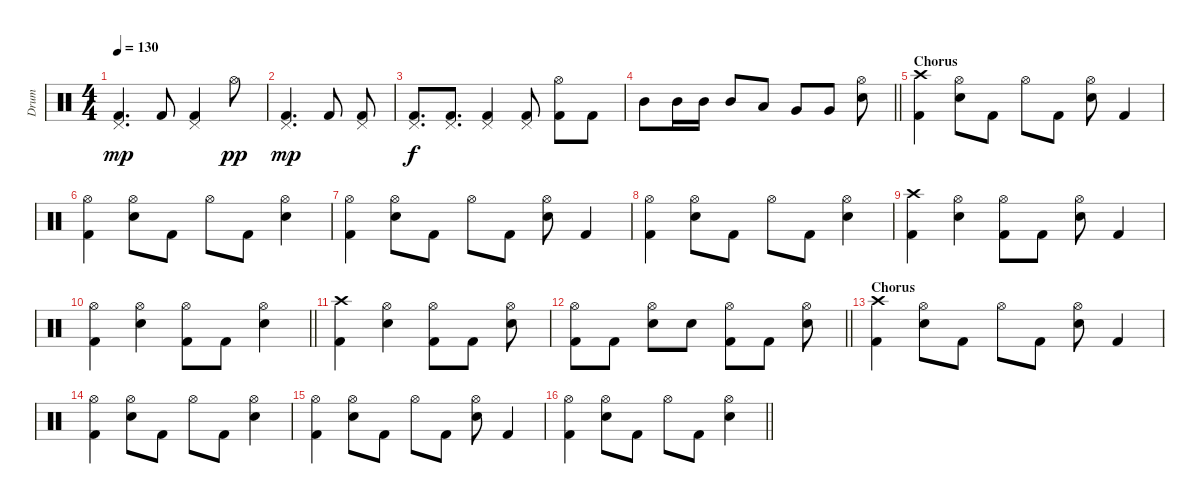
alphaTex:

\track ("Drum" "Drum") {instrument percussion}
\staff {score}
\articulation defaults
\ts (4 4)
\tempo 130
\clef neutral
\ks c
("Pedal Hi-Hat (hit)" "Kick (hit) 2").4{d dy mp} "Kick (hit) 2".8 ("Pedal Hi-Hat (hit)" "Kick (hit) 2").4 "Hi-Hat (open)".8{dy pp} |
("Pedal Hi-Hat (hit)" "Kick (hit) 2").4{d dy mp} "Kick (hit) 2".8 ("Pedal Hi-Hat (hit)" "Kick (hit) 2").8 |
("Pedal Hi-Hat (hit)" "Kick (hit) 2").8{d dy f} ("Pedal Hi-Hat (hit)" "Kick (hit) 2").8{d} ("Pedal Hi-Hat (hit)" "Kick (hit) 2").4 ("Pedal Hi-Hat (hit)" "Kick (hit) 2").8 ("Hi-Hat (open)" "Kick (hit) 2").8 "Kick (hit) 2".8 |
\barLineRight lightlight "Mid Tom (hit)".8 "Mid Tom (hit)".16 "Mid Tom (hit)".16 "Mid Tom (hit)".8 "Low Tom (hit)".8 "Very Low Tom (hit)".8 "Very Low Tom (hit)".8
("Hi-Hat (open)" "Electric Snare (hit)").8 |
\section ("" "Chorus")
("Crash high (hit)" "Kick (hit) 2").4 ("Hi-Hat (open)" "Electric Snare (hit)").8 "Kick (hit) 2".8 "Hi-Hat (open)".8 "Kick (hit) 2".8 ("Hi-Hat (open)" "Electric Snare (hit)").8 "Kick (hit) 2".4 |
("Hi-Hat (open)" "Kick (hit) 2").4 ("Hi-Hat (open)" "Electric Snare (hit)").8 "Kick (hit) 2".8 "Hi-Hat (open)".8 "Kick (hit) 2".8 ("Hi-Hat (open)" "Electric Snare (hit)").4 |
("Hi-Hat (open)" "Kick (hit) 2").4 ("Hi-Hat (open)" "Electric Snare (hit)").8 "Kick (hit) 2".8 "Hi-Hat (open)".8 "Kick (hit) 2".8 ("Hi-Hat (open)" "Electric Snare (hit)").8 "Kick (hit) 2".4 |
("Hi-Hat (open)" "Kick (hit) 2").4 ("Hi-Hat (open)" "Electric Snare (hit)").8 "Kick (hit) 2".8 "Hi-Hat (open)".8 "Kick (hit) 2".8 ("Hi-Hat (open)" "Electric Snare (hit)").4 |
("Crash high (hit)" "Kick (hit) 2").4 ("Hi-Hat (open)" "Electric Snare (hit)").4 ("Hi-Hat (open)" "Kick (hit) 2").8 "Kick (hit) 2".8 ("Hi-Hat (open)" "Electric Snare (hit)").8 "Kick (hit) 2".4 |
\barLineRight lightlight
("Hi-Hat (open)" "Kick (hit) 2").4 ("Hi-Hat (open)" "Electric Snare (hit)").4 ("Hi-Hat (open)" "Kick (hit) 2").8 "Kick (hit) 2".8 ("Hi-Hat (open)" "Electric Snare (hit)").4 |
("Crash high (hit)" "Kick (hit) 2").4 ("Hi-Hat (open)" "Electric Snare (hit)").4 ("Hi-Hat (open)" "Kick (hit) 2").8 "Kick (hit) 2".8 ("Hi-Hat (open)" "Electric Snare (hit)").8 |
\barLineRight lightlight
("Hi-Hat (open)" "Kick (hit) 2").8 "Kick (hit) 2".8 ("Hi-Hat (open)" "Electric Snare (hit)").8 "Electric Snare (hit)".8 ("Hi-Hat (open)" "Kick (hit) 2").8 "Kick (hit) 2".8 ("Hi-Hat (open)" "Electric Snare (hit)").8 |
\section ("" "Chorus")
("Crash high (hit)" "Kick (hit) 2").4 ("Hi-Hat (open)" "Electric Snare (hit)").8 "Kick (hit) 2".8 "Hi-Hat (open)".8 "Kick (hit) 2".8 ("Hi-Hat (open)" "Electric Snare (hit)").8 "Kick (hit) 2".4 |
("Hi-Hat (open)" "Kick (hit) 2").4 ("Hi-Hat (open)" "Electric Snare (hit)").8 "Kick (hit) 2".8 "Hi-Hat (open)".8 "Kick (hit) 2".8 ("Hi-Hat (open)" "Electric Snare (hit)").4 |
("Hi-Hat (open)" "Kick (hit) 2").4 ("Hi-Hat (open)" "Electric Snare (hit)").8 "Kick (hit) 2".8 "Hi-Hat (open)".8 "Kick (hit) 2".8 ("Hi-Hat (open)" "Electric Snare (hit)").8 "Kick (hit) 2".4 |
\barLineRight lightlight
("Hi-Hat (open)" "Kick (hit) 2").4 ("Hi-Hat (open)" "Electric Snare (hit)").8 "Kick (hit) 2".8 "Hi-Hat (open)".8 "Kick (hit) 2".8 ("Hi-Hat (open)" "Electric Snare (hit)").4
